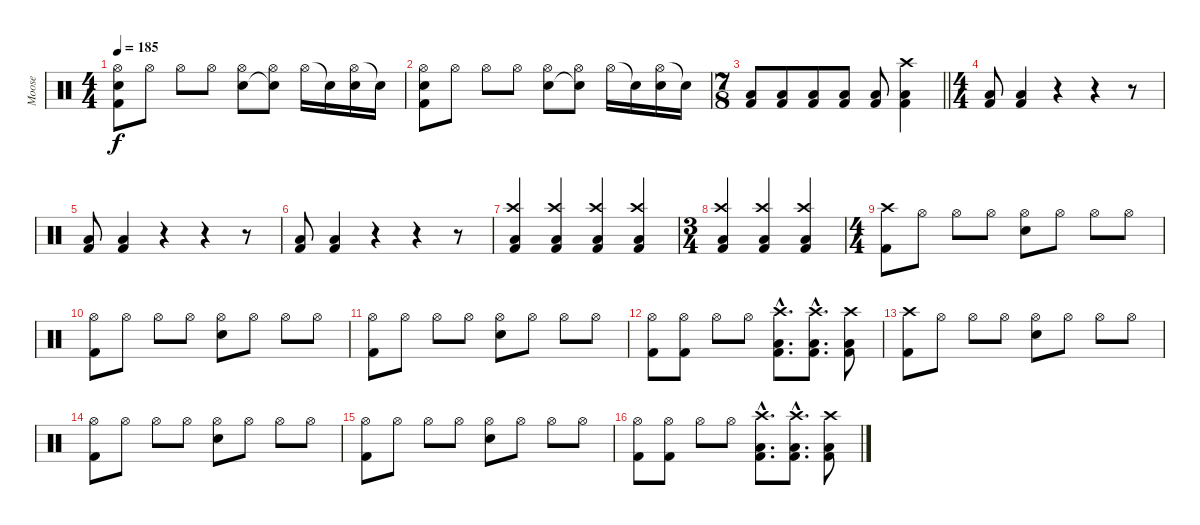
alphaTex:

\track ("Moose" "Moose") {instrument percussion}
\staff {score}
\articulation defaults
\ts (4 4)
\tempo 185
\clef neutral
\ks c
("Hi-Hat (open)" "Snare (hit) 2" "Kick (hit) 2").8{dy f} "Hi-Hat (open)".8 "Hi-Hat (open)".8 "Hi-Hat (open)".8 ("Hi-Hat (open)" "Snare (hit) 2").8 ("Hi-Hat (open)" "Snare (hit)"{t}).8 "Hi-Hat (open)".16 "Snare (hit)"{t}.16 ("Hi-Hat (open)" "Snare (hit) 2").16 "Snare (hit)"{t}.16 |
("Hi-Hat (open)" "Snare (hit) 2" "Kick (hit) 2").8 "Hi-Hat (open)".8 "Hi-Hat (open)".8 "Hi-Hat (open)".8 ("Hi-Hat (open)" "Snare (hit) 2").8 ("Hi-Hat (open)" "Snare (hit)"{t}).8 "Hi-Hat (open)".16 "Snare (hit)"{t}.16 ("Hi-Hat (open)" "Snare (hit) 2").16 "Snare (hit)"{t}.16 |
\ts (7 8)
\barLineRight lightlight
("Low Tom (hit)" "Kick (hit) 2").8 ("Low Tom (hit)" "Kick (hit) 2").8 ("Low Tom (hit)" "Kick (hit) 2").8 ("Low Tom (hit)" "Kick (hit) 2").8 ("Low Tom (hit)" "Kick (hit) 2").8 ("Crash high (hit)" "Low Tom (hit)" "Kick (hit) 2").4 |
\ts (4 4)
("Low Floor Tom (hit)" "Kick (hit) 2").8 ("Low Floor Tom (hit)" "Kick (hit) 2").4 r.4 r.4 r.8 |
("Low Floor Tom (hit)" "Kick (hit) 2").8 ("Low Floor Tom (hit)" "Kick (hit) 2").4 r.4 r.4 r.8 |
("Low Floor Tom (hit)" "Kick (hit) 2").8 ("Low Floor Tom (hit)" "Kick (hit) 2").4 r.4 r.4 r.8 |
("Crash high (hit)" "Low Floor Tom (hit)" "Kick (hit) 2").4 ("Crash high (hit)" "Low Floor Tom (hit)" "Kick (hit) 2").4 ("Crash high (hit)" "Low Floor Tom (hit)" "Kick (hit) 2").4 ("Crash high (hit)" "Low Floor Tom (hit)" "Kick (hit) 2").4 |
\ts (3 4)
("Crash high (hit)" "Low Floor Tom (hit)" "Kick (hit) 2").4 ("Crash high (hit)" "Low Floor Tom (hit)" "Kick (hit) 2").4 ("Crash high (hit)" "Low Floor Tom (hit)" "Kick (hit) 2").4 |
\ts (4 4)
("Crash high (hit)" "Kick (hit) 2").8 "Hi-Hat (open)".8 "Hi-Hat (open)".8 "Hi-Hat (open)".8 ("Hi-Hat (open)" "Snare (hit) 2").8 "Hi-Hat (open)".8 "Hi-Hat (open)".8 "Hi-Hat (open)".8 |
("Hi-Hat (open)" "Kick (hit) 2").8 "Hi-Hat (open)".8 "Hi-Hat (open)".8 "Hi-Hat (open)".8 ("Hi-Hat (open)" "Snare (hit) 2").8 "Hi-Hat (open)".8 "Hi-Hat (open)".8 "Hi-Hat (open)".8 |
("Hi-Hat (open)" "Kick (hit) 2").8 "Hi-Hat (open)".8 "Hi-Hat (open)".8 "Hi-Hat (open)".8 ("Hi-Hat (open)" "Snare (hit) 2").8 "Hi-Hat (open)".8 "Hi-Hat (open)".8 "Hi-Hat (open)".8 |
("Hi-Hat (open)" "Kick (hit) 2").8 ("Hi-Hat (open)" "Kick (hit) 2").8 "Hi-Hat (open)".8 "Hi-Hat (open)".8 ("Crash high (hit)"{hac} "Low Tom (hit)"{hac} "Kick (hit) 2"{hac}).8{d} ("Crash high (hit)"{hac} "Low Tom (hit)"{hac} "Kick (hit) 2"{hac}).8{d} ("Crash high (hit)" "Low Tom (hit)" "Kick (hit) 2").8 |
("Crash high (hit)" "Kick (hit) 2").8 "Hi-Hat (open)".8 "Hi-Hat (open)".8 "Hi-Hat (open)".8 ("Hi-Hat (open)" "Snare (hit) 2").8 "Hi-Hat (open)".8 "Hi-Hat (open)".8 "Hi-Hat (open)".8 |
("Hi-Hat (open)" "Kick (hit) 2").8 "Hi-Hat (open)".8 "Hi-Hat (open)".8 "Hi-Hat (open)".8 ("Hi-Hat (open)" "Snare (hit) 2").8 "Hi-Hat (open)".8 "Hi-Hat (open)".8 "Hi-Hat (open)".8 |
("Hi-Hat (open)" "Kick (hit) 2").8 "Hi-Hat (open)".8 "Hi-Hat (open)".8 "Hi-Hat (open)".8 ("Hi-Hat (open)" "Snare (hit) 2").8 "Hi-Hat (open)".8 "Hi-Hat (open)".8 "Hi-Hat (open)".8 |
("Hi-Hat (open)" "Kick (hit) 2").8 ("Hi-Hat (open)" "Kick (hit) 2").8 "Hi-Hat (open)".8 "Hi-Hat (open)".8 ("Crash high (hit)"{hac} "Low Tom (hit)"{hac} "Kick (hit) 2"{hac}).8{d} ("Crash high (hit)"{hac} "Low Tom (hit)"{hac} "Kick (hit) 2"{hac}).8{d} ("Crash high (hit)" "Low Tom (hit)" "Kick (hit) 2").8
